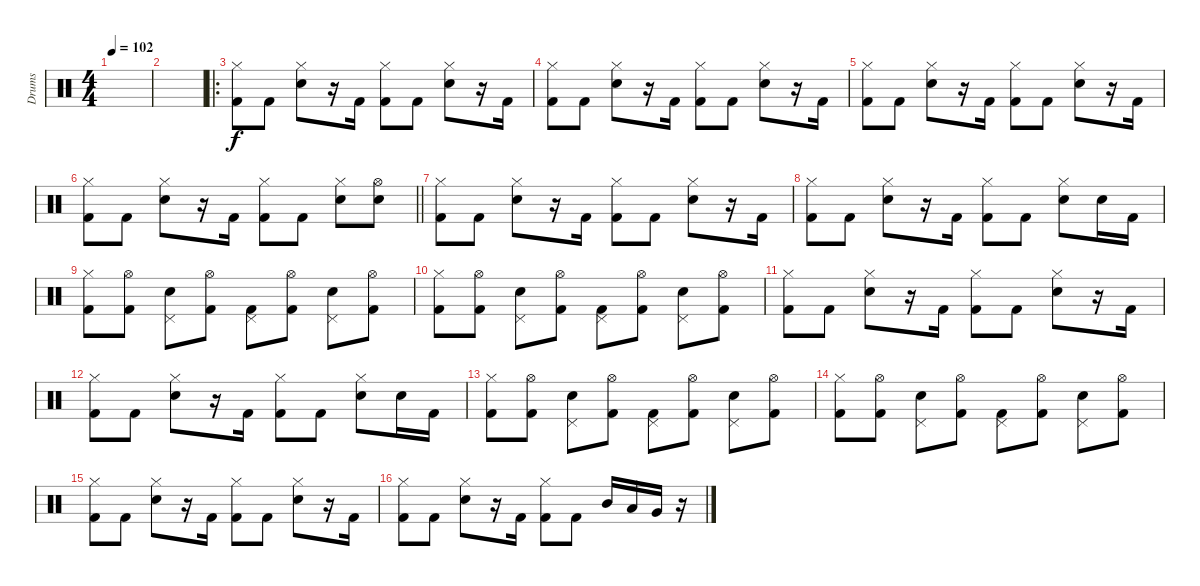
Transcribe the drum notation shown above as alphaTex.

\track ("Drums" "Drums") {instrument percussion}
\staff {score}
\articulation defaults
\ts (4 4)
\tempo 102
\clef neutral
\ks c
|
|
\ro
("Hi-Hat (closed)" "Kick (hit) 2").8 "Kick (hit) 2".8 ("Hi-Hat (closed)" "Snare (hit) 2").8 r.16 "Kick (hit) 2".16 ("Hi-Hat (closed)" "Kick (hit) 2").8 "Kick (hit) 2".8 ("Hi-Hat (closed)" "Snare (hit) 2").8 r.16 "Kick (hit) 2".16 |
("Hi-Hat (closed)" "Kick (hit) 2").8 "Kick (hit) 2".8 ("Hi-Hat (closed)" "Snare (hit) 2").8 r.16 "Kick (hit) 2".16 ("Hi-Hat (closed)" "Kick (hit) 2").8 "Kick (hit) 2".8 ("Hi-Hat (closed)" "Snare (hit) 2").8 r.16 "Kick (hit) 2".16 |
("Hi-Hat (closed)" "Kick (hit) 2").8 "Kick (hit) 2".8 ("Hi-Hat (closed)" "Snare (hit) 2").8 r.16 "Kick (hit) 2".16 ("Hi-Hat (closed)" "Kick (hit) 2").8 "Kick (hit) 2".8 ("Hi-Hat (closed)" "Snare (hit) 2").8 r.16 "Kick (hit) 2".16 |
\barLineRight lightlight
("Hi-Hat (closed)" "Kick (hit) 2").8 "Kick (hit) 2".8 ("Hi-Hat (closed)" "Snare (hit) 2").8 r.16 "Kick (hit) 2".16 ("Hi-Hat (closed)" "Kick (hit) 2").8 "Kick (hit) 2".8 ("Hi-Hat (closed)" "Snare (hit) 2").8 ("Hi-Hat (open)" "Snare (hit) 2").8 |
("Hi-Hat (closed)" "Kick (hit) 2").8 "Kick (hit) 2".8 ("Hi-Hat (closed)" "Snare (hit) 2").8 r.16 "Kick (hit) 2".16 ("Hi-Hat (closed)" "Kick (hit) 2").8 "Kick (hit) 2".8 ("Hi-Hat (closed)" "Snare (hit) 2").8 r.16 "Kick (hit) 2".16 |
("Hi-Hat (closed)" "Kick (hit) 2").8 "Kick (hit) 2".8 ("Hi-Hat (closed)" "Snare (hit) 2").8 r.16 "Kick (hit) 2".16 ("Hi-Hat (closed)" "Kick (hit) 2").8 "Kick (hit) 2".8 ("Hi-Hat (closed)" "Snare (hit) 2").8 "Snare (hit) 2".16 "Kick (hit) 2".16 |
("Hi-Hat (closed)" "Kick (hit) 2").8 ("Hi-Hat (open)" "Kick (hit) 2").8 ("Pedal Hi-Hat (hit)" "Snare (hit) 2").8 ("Hi-Hat (open)" "Kick (hit) 2").8 ("Pedal Hi-Hat (hit)" "Kick (hit) 2").8 ("Hi-Hat (open)" "Kick (hit) 2").8 ("Pedal Hi-Hat (hit)" "Snare (hit) 2").8 ("Hi-Hat (open)" "Kick (hit) 2").8 |
("Hi-Hat (closed)" "Kick (hit) 2").8 ("Hi-Hat (open)" "Kick (hit) 2").8 ("Pedal Hi-Hat (hit)" "Snare (hit) 2").8 ("Hi-Hat (open)" "Kick (hit) 2").8 ("Pedal Hi-Hat (hit)" "Kick (hit) 2").8 ("Hi-Hat (open)" "Kick (hit) 2").8 ("Pedal Hi-Hat (hit)" "Snare (hit) 2").8 ("Hi-Hat (open)" "Kick (hit) 2").8 |
("Hi-Hat (closed)" "Kick (hit) 2").8 "Kick (hit) 2".8 ("Hi-Hat (closed)" "Snare (hit) 2").8 r.16 "Kick (hit) 2".16 ("Hi-Hat (closed)" "Kick (hit) 2").8 "Kick (hit) 2".8 ("Hi-Hat (closed)" "Snare (hit) 2").8 r.16 "Kick (hit) 2".16 |
("Hi-Hat (closed)" "Kick (hit) 2").8 "Kick (hit) 2".8 ("Hi-Hat (closed)" "Snare (hit) 2").8 r.16 "Kick (hit) 2".16 ("Hi-Hat (closed)" "Kick (hit) 2").8 "Kick (hit) 2".8 ("Hi-Hat (closed)" "Snare (hit) 2").8 "Snare (hit) 2".16 "Kick (hit) 2".16 |
("Hi-Hat (closed)" "Kick (hit) 2").8 ("Hi-Hat (open)" "Kick (hit) 2").8 ("Pedal Hi-Hat (hit)" "Snare (hit) 2").8 ("Hi-Hat (open)" "Kick (hit) 2").8 ("Pedal Hi-Hat (hit)" "Kick (hit) 2").8 ("Hi-Hat (open)" "Kick (hit) 2").8 ("Pedal Hi-Hat (hit)" "Snare (hit) 2").8 ("Hi-Hat (open)" "Kick (hit) 2").8 |
("Hi-Hat (closed)" "Kick (hit) 2").8 ("Hi-Hat (open)" "Kick (hit) 2").8 ("Pedal Hi-Hat (hit)" "Snare (hit) 2").8 ("Hi-Hat (open)" "Kick (hit) 2").8 ("Pedal Hi-Hat (hit)" "Kick (hit) 2").8 ("Hi-Hat (open)" "Kick (hit) 2").8 ("Pedal Hi-Hat (hit)" "Snare (hit) 2").8 ("Hi-Hat (open)" "Kick (hit) 2").8 |
("Hi-Hat (closed)" "Kick (hit) 2").8 "Kick (hit) 2".8 ("Hi-Hat (closed)" "Snare (hit) 2").8 r.16 "Kick (hit) 2".16 ("Hi-Hat (closed)" "Kick (hit) 2").8 "Kick (hit) 2".8 ("Hi-Hat (closed)" "Snare (hit) 2").8 r.16 "Kick (hit) 2".16 |
("Hi-Hat (closed)" "Kick (hit) 2").8 "Kick (hit) 2".8 ("Hi-Hat (closed)" "Snare (hit) 2").8 r.16 "Kick (hit) 2".16 ("Hi-Hat (closed)" "Kick (hit) 2").8 "Kick (hit) 2".8 "Mid Tom (hit)".16 "Low Tom (hit)".16 "Very Low Tom (hit)".16 r.16
